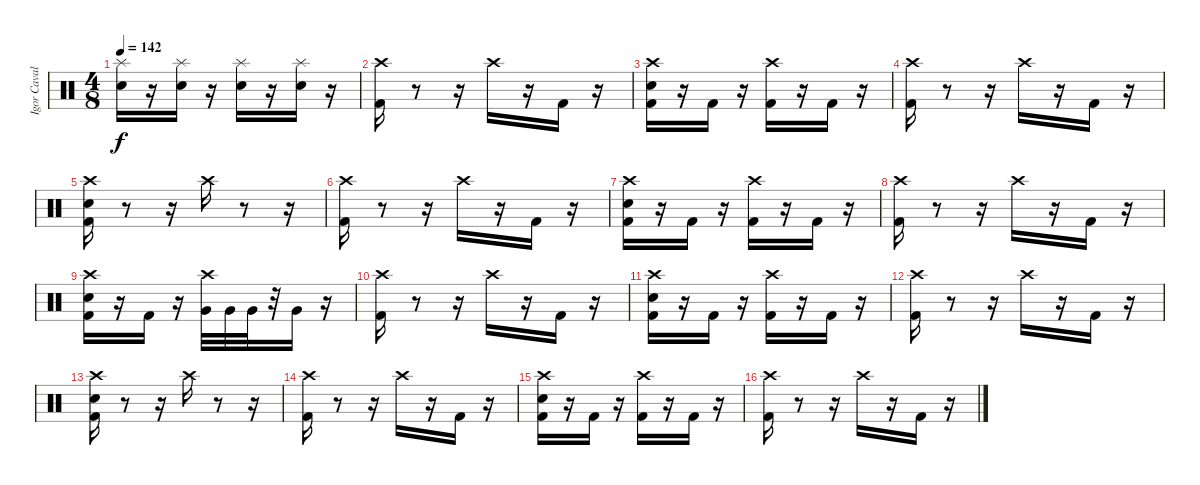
\track ("Igor Cavalera" "Igor Caval") {instrument percussion}
\staff {score}
\articulation defaults
\ts (4 8)
\tempo 142
\clef neutral
\ks c
("Electric Snare (hit)" "Splash (hit)").16{dy f} r.16 ("Electric Snare (hit)" "Splash (hit)").16 r.16 ("Electric Snare (hit)" "Splash (hit)").16 r.16 ("Electric Snare (hit)" "Splash (hit)").16 r.16 |
("Kick (hit) 2" "Crash high (hit)").16 r.8 r.16 "Crash high (hit)".16 r.16 "Kick (hit) 2".16 r.16 |
("Electric Snare (hit)" "Kick (hit) 2" "Crash high (hit)").16 r.16 "Kick (hit) 2".16 r.16 ("Crash high (hit)" "Kick (hit) 2").16 r.16 "Kick (hit) 2".16 r.16 |
("Kick (hit) 2" "Crash high (hit)").16 r.8 r.16 "Crash high (hit)".16 r.16 "Kick (hit) 2".16 r.16 |
("Kick (hit) 2" "Crash high (hit)" "Electric Snare (hit)").16 r.8 r.16 "Crash high (hit)".16 r.8 r.16 |
("Kick (hit) 2" "Crash high (hit)").16 r.8 r.16 "Crash high (hit)".16 r.16 "Kick (hit) 2".16 r.16 |
("Electric Snare (hit)" "Kick (hit) 2" "Crash high (hit)").16 r.16 "Kick (hit) 2".16 r.16 ("Crash high (hit)" "Kick (hit) 2").16 r.16 "Kick (hit) 2".16 r.16 |
("Kick (hit) 2" "Crash high (hit)").16 r.8 r.16 "Crash high (hit)".16 r.16 "Kick (hit) 2".16 r.16 |
("Kick (hit) 2" "Crash high (hit)" "Electric Snare (hit)").16 r.16 "Kick (hit) 2".16 r.16 ("Crash high (hit)" "Very Low Tom (hit)").32 "Very Low Tom (hit)".32 "Very Low Tom (hit)".32 r.32 "Very Low Tom (hit)".16 r.16 |
("Kick (hit) 2" "Crash high (hit)").16 r.8 r.16 "Crash high (hit)".16 r.16 "Kick (hit) 2".16 r.16 |
("Electric Snare (hit)" "Kick (hit) 2" "Crash high (hit)").16 r.16 "Kick (hit) 2".16 r.16 ("Crash high (hit)" "Kick (hit) 2").16 r.16 "Kick (hit) 2".16 r.16 |
("Kick (hit) 2" "Crash high (hit)").16 r.8 r.16 "Crash high (hit)".16 r.16 "Kick (hit) 2".16 r.16 |
("Kick (hit) 2" "Crash high (hit)" "Electric Snare (hit)").16 r.8 r.16 "Crash high (hit)".16 r.8 r.16 |
("Kick (hit) 2" "Crash high (hit)").16 r.8 r.16 "Crash high (hit)".16 r.16 "Kick (hit) 2".16 r.16 |
("Electric Snare (hit)" "Kick (hit) 2" "Crash high (hit)").16 r.16 "Kick (hit) 2".16 r.16 ("Crash high (hit)" "Kick (hit) 2").16 r.16 "Kick (hit) 2".16 r.16 |
("Kick (hit) 2" "Crash high (hit)").16 r.8 r.16 "Crash high (hit)".16 r.16 "Kick (hit) 2".16 r.16
